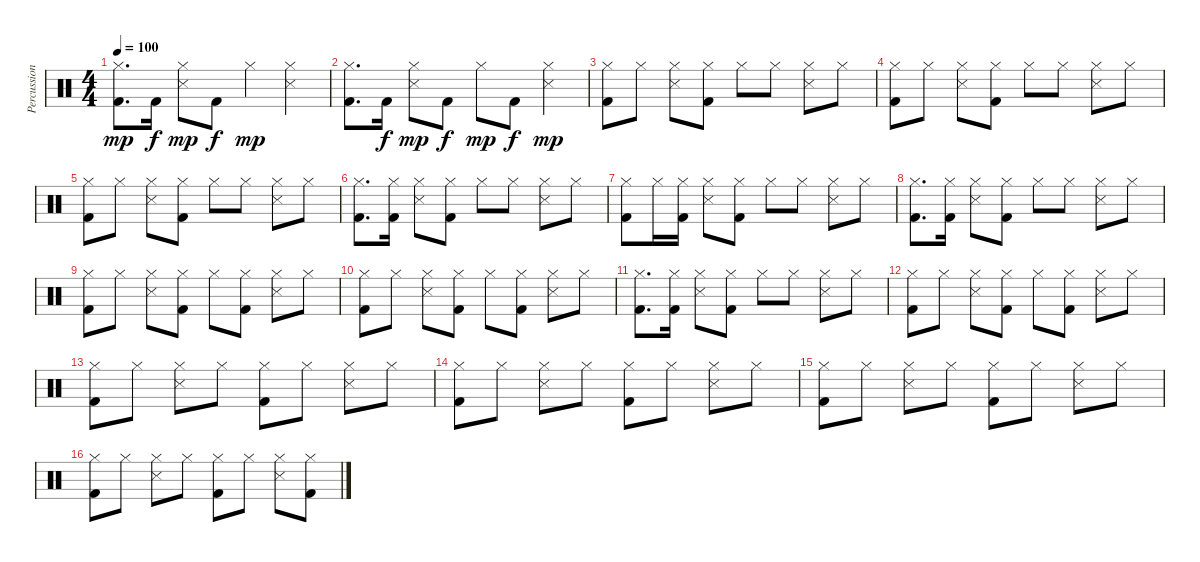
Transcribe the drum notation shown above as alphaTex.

\track ("Percussion" "Percussion") {instrument percussion}
\staff {score}
\articulation defaults
\ts (4 4)
\tempo 100
\clef neutral
\ks c
("Kick (hit) 2" "Hi-Hat (closed)").8{d dy mp} "Kick (hit) 2".16{dy f} ("Hi-Hat (closed)" "Snare (side stick) 3").8{dy mp} "Kick (hit) 2".8{dy f} "Hi-Hat (closed)".4{dy mp} ("Hi-Hat (closed)" "Snare (side stick) 3").4 |
("Kick (hit) 2" "Hi-Hat (closed)").8{d} "Kick (hit) 2".16{dy f} ("Hi-Hat (closed)" "Snare (side stick) 3").8{dy mp} "Kick (hit) 2".8{dy f} "Hi-Hat (closed)".8{dy mp} "Kick (hit) 2".8{dy f} ("Hi-Hat (closed)" "Snare (side stick) 3").4{dy mp} |
("Kick (hit) 2" "Hi-Hat (closed)").8 "Hi-Hat (closed)".8 ("Hi-Hat (closed)" "Snare (side stick) 3").8 ("Kick (hit) 2" "Hi-Hat (closed)").8 "Hi-Hat (closed)".8 "Hi-Hat (closed)".8 ("Hi-Hat (closed)" "Snare (side stick) 3").8 "Hi-Hat (closed)".8 |
("Kick (hit) 2" "Hi-Hat (closed)").8 "Hi-Hat (closed)".8 ("Hi-Hat (closed)" "Snare (side stick) 3").8 ("Kick (hit) 2" "Hi-Hat (closed)").8 "Hi-Hat (closed)".8 "Hi-Hat (closed)".8 ("Hi-Hat (closed)" "Snare (side stick) 3").8 "Hi-Hat (closed)".8 |
("Kick (hit) 2" "Hi-Hat (closed)").8 "Hi-Hat (closed)".8 ("Hi-Hat (closed)" "Snare (side stick) 3").8 ("Kick (hit) 2" "Hi-Hat (closed)").8 "Hi-Hat (closed)".8 "Hi-Hat (closed)".8 ("Hi-Hat (closed)" "Snare (side stick) 3").8 "Hi-Hat (closed)".8 |
("Kick (hit) 2" "Hi-Hat (closed)").8{d} ("Kick (hit) 2" "Hi-Hat (closed)").16 ("Hi-Hat (closed)" "Snare (side stick) 3").8 ("Kick (hit) 2" "Hi-Hat (closed)").8 "Hi-Hat (closed)".8 "Hi-Hat (closed)".8 ("Hi-Hat (closed)" "Snare (side stick) 3").8 "Hi-Hat (closed)".8 |
("Kick (hit) 2" "Hi-Hat (closed)").8 "Hi-Hat (closed)".16 ("Kick (hit) 2" "Hi-Hat (closed)").16 ("Hi-Hat (closed)" "Snare (side stick) 3").8 ("Kick (hit) 2" "Hi-Hat (closed)").8 "Hi-Hat (closed)".8 "Hi-Hat (closed)".8 ("Hi-Hat (closed)" "Snare (side stick) 3").8 "Hi-Hat (closed)".8 |
("Kick (hit) 2" "Hi-Hat (closed)").8{d} ("Kick (hit) 2" "Hi-Hat (closed)").16 ("Hi-Hat (closed)" "Snare (side stick) 3").8 ("Kick (hit) 2" "Hi-Hat (closed)").8 "Hi-Hat (closed)".8 "Hi-Hat (closed)".8 ("Hi-Hat (closed)" "Snare (side stick) 3").8 "Hi-Hat (closed)".8 |
("Kick (hit) 2" "Hi-Hat (closed)").8 "Hi-Hat (closed)".8 ("Hi-Hat (closed)" "Snare (side stick) 3").8 ("Kick (hit) 2" "Hi-Hat (closed)").8 "Hi-Hat (closed)".8 ("Kick (hit) 2" "Hi-Hat (closed)").8 ("Hi-Hat (closed)" "Snare (side stick) 3").8 "Hi-Hat (closed)".8 |
("Kick (hit) 2" "Hi-Hat (closed)").8 "Hi-Hat (closed)".8 ("Hi-Hat (closed)" "Snare (side stick) 3").8 ("Kick (hit) 2" "Hi-Hat (closed)").8 "Hi-Hat (closed)".8 ("Kick (hit) 2" "Hi-Hat (closed)").8 ("Hi-Hat (closed)" "Snare (side stick) 3").8 "Hi-Hat (closed)".8 |
("Kick (hit) 2" "Hi-Hat (closed)").8{d} ("Kick (hit) 2" "Hi-Hat (closed)").16 ("Hi-Hat (closed)" "Snare (side stick) 3").8 ("Kick (hit) 2" "Hi-Hat (closed)").8 "Hi-Hat (closed)".8 "Hi-Hat (closed)".8 ("Hi-Hat (closed)" "Snare (side stick) 3").8 "Hi-Hat (closed)".8 |
("Kick (hit) 2" "Hi-Hat (closed)").8 "Hi-Hat (closed)".8 ("Hi-Hat (closed)" "Snare (side stick) 3").8 ("Kick (hit) 2" "Hi-Hat (closed)").8 "Hi-Hat (closed)".8 ("Kick (hit) 2" "Hi-Hat (closed)").8 ("Hi-Hat (closed)" "Snare (side stick) 3").8 "Hi-Hat (closed)".8 |
("Kick (hit) 2" "Hi-Hat (closed)").8 "Hi-Hat (closed)".8 ("Hi-Hat (closed)" "Snare (side stick) 3").8 "Hi-Hat (closed)".8 ("Kick (hit) 2" "Hi-Hat (closed)").8 "Hi-Hat (closed)".8 ("Hi-Hat (closed)" "Snare (side stick) 3").8 "Hi-Hat (closed)".8 |
("Kick (hit) 2" "Hi-Hat (closed)").8 "Hi-Hat (closed)".8 ("Hi-Hat (closed)" "Snare (side stick) 3").8 "Hi-Hat (closed)".8 ("Kick (hit) 2" "Hi-Hat (closed)").8 "Hi-Hat (closed)".8 ("Hi-Hat (closed)" "Snare (side stick) 3").8 "Hi-Hat (closed)".8 |
("Kick (hit) 2" "Hi-Hat (closed)").8 "Hi-Hat (closed)".8 ("Hi-Hat (closed)" "Snare (side stick) 3").8 "Hi-Hat (closed)".8 ("Kick (hit) 2" "Hi-Hat (closed)").8 "Hi-Hat (closed)".8 ("Hi-Hat (closed)" "Snare (side stick) 3").8 "Hi-Hat (closed)".8 |
("Kick (hit) 2" "Hi-Hat (closed)").8 "Hi-Hat (closed)".8 ("Hi-Hat (closed)" "Snare (side stick) 3").8 "Hi-Hat (closed)".8 ("Kick (hit) 2" "Hi-Hat (closed)").8 "Hi-Hat (closed)".8 ("Hi-Hat (closed)" "Snare (side stick) 3").8 ("Kick (hit) 2" "Hi-Hat (closed)").8
